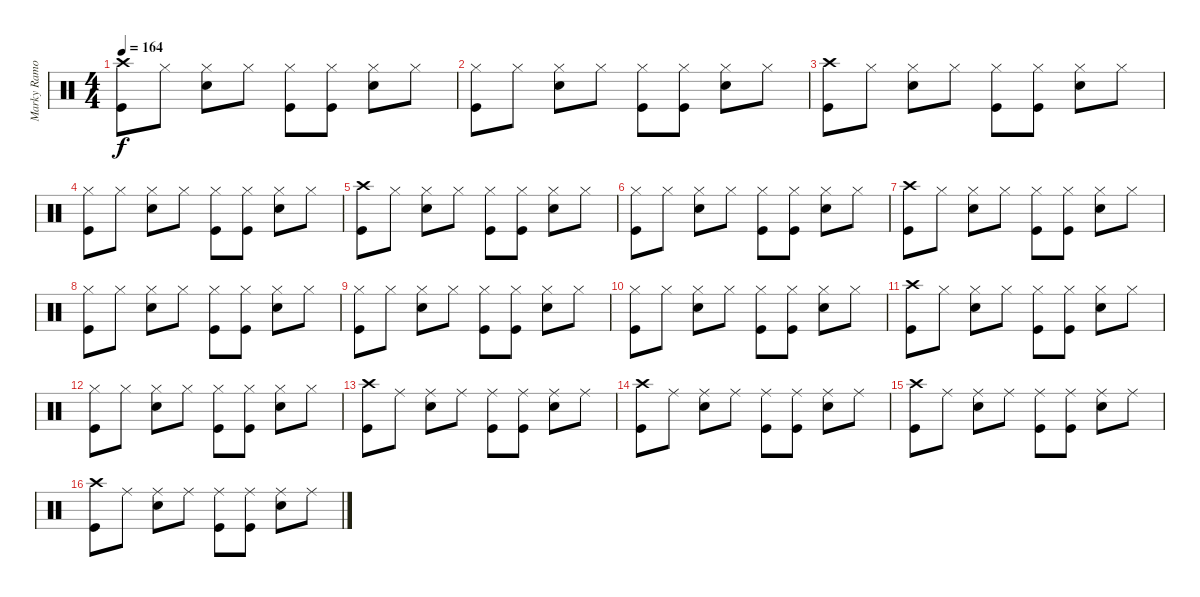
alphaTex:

\track ("Marky Ramone (Drums)" "Marky Ramo") {instrument percussion}
\staff {score}
\articulation defaults
\ts (4 4)
\tempo 164
\clef neutral
\ks c
("Crash high (hit)" "Kick (hit)").8{dy f} "Hi-Hat (closed)".8 ("Hi-Hat (closed)" "Snare (hit) 2").8 "Hi-Hat (closed)".8 ("Hi-Hat (closed)" "Kick (hit)").8 ("Hi-Hat (closed)" "Kick (hit)").8 ("Hi-Hat (closed)" "Snare (hit) 2").8 "Hi-Hat (closed)".8 |
("Hi-Hat (closed)" "Kick (hit)").8 "Hi-Hat (closed)".8 ("Hi-Hat (closed)" "Snare (hit) 2").8 "Hi-Hat (closed)".8 ("Hi-Hat (closed)" "Kick (hit)").8 ("Hi-Hat (closed)" "Kick (hit)").8 ("Hi-Hat (closed)" "Snare (hit) 2").8 "Hi-Hat (closed)".8 |
("Crash high (hit)" "Kick (hit)").8 "Hi-Hat (closed)".8 ("Hi-Hat (closed)" "Snare (hit) 2").8 "Hi-Hat (closed)".8 ("Hi-Hat (closed)" "Kick (hit)").8 ("Hi-Hat (closed)" "Kick (hit)").8 ("Hi-Hat (closed)" "Snare (hit) 2").8 "Hi-Hat (closed)".8 |
("Hi-Hat (closed)" "Kick (hit)").8 "Hi-Hat (closed)".8 ("Hi-Hat (closed)" "Snare (hit) 2").8 "Hi-Hat (closed)".8 ("Hi-Hat (closed)" "Kick (hit)").8 ("Hi-Hat (closed)" "Kick (hit)").8 ("Hi-Hat (closed)" "Snare (hit) 2").8 "Hi-Hat (closed)".8 |
("Crash high (hit)" "Kick (hit)").8 "Hi-Hat (closed)".8 ("Hi-Hat (closed)" "Snare (hit) 2").8 "Hi-Hat (closed)".8 ("Hi-Hat (closed)" "Kick (hit)").8 ("Hi-Hat (closed)" "Kick (hit)").8 ("Hi-Hat (closed)" "Snare (hit) 2").8 "Hi-Hat (closed)".8 |
("Hi-Hat (closed)" "Kick (hit)").8 "Hi-Hat (closed)".8 ("Hi-Hat (closed)" "Snare (hit) 2").8 "Hi-Hat (closed)".8 ("Hi-Hat (closed)" "Kick (hit)").8 ("Hi-Hat (closed)" "Kick (hit)").8 ("Hi-Hat (closed)" "Snare (hit) 2").8 "Hi-Hat (closed)".8 |
("Crash high (hit)" "Kick (hit)").8 "Hi-Hat (closed)".8 ("Hi-Hat (closed)" "Snare (hit) 2").8 "Hi-Hat (closed)".8 ("Hi-Hat (closed)" "Kick (hit)").8 ("Hi-Hat (closed)" "Kick (hit)").8 ("Hi-Hat (closed)" "Snare (hit) 2").8 "Hi-Hat (closed)".8 |
("Hi-Hat (closed)" "Kick (hit)").8 "Hi-Hat (closed)".8 ("Hi-Hat (closed)" "Snare (hit) 2").8 "Hi-Hat (closed)".8 ("Hi-Hat (closed)" "Kick (hit)").8 ("Hi-Hat (closed)" "Kick (hit)").8 ("Hi-Hat (closed)" "Snare (hit) 2").8 "Hi-Hat (closed)".8 |
("Hi-Hat (closed)" "Kick (hit)").8 "Hi-Hat (closed)".8 ("Hi-Hat (closed)" "Snare (hit) 2").8 "Hi-Hat (closed)".8 ("Hi-Hat (closed)" "Kick (hit)").8 ("Hi-Hat (closed)" "Kick (hit)").8 ("Hi-Hat (closed)" "Snare (hit) 2").8 "Hi-Hat (closed)".8 |
("Hi-Hat (closed)" "Kick (hit)").8 "Hi-Hat (closed)".8 ("Hi-Hat (closed)" "Snare (hit) 2").8 "Hi-Hat (closed)".8 ("Hi-Hat (closed)" "Kick (hit)").8 ("Hi-Hat (closed)" "Kick (hit)").8 ("Hi-Hat (closed)" "Snare (hit) 2").8 "Hi-Hat (closed)".8 |
("Crash high (hit)" "Kick (hit)").8 "Hi-Hat (closed)".8 ("Hi-Hat (closed)" "Snare (hit) 2").8 "Hi-Hat (closed)".8 ("Hi-Hat (closed)" "Kick (hit)").8 ("Hi-Hat (closed)" "Kick (hit)").8 ("Hi-Hat (closed)" "Snare (hit) 2").8 "Hi-Hat (closed)".8 |
("Hi-Hat (closed)" "Kick (hit)").8 "Hi-Hat (closed)".8 ("Hi-Hat (closed)" "Snare (hit) 2").8 "Hi-Hat (closed)".8 ("Hi-Hat (closed)" "Kick (hit)").8 ("Hi-Hat (closed)" "Kick (hit)").8 ("Hi-Hat (closed)" "Snare (hit) 2").8 "Hi-Hat (closed)".8 |
("Crash high (hit)" "Kick (hit)").8 "Ride (middle)".8 ("Ride (middle)" "Snare (hit) 2").8 "Ride (middle)".8 ("Ride (middle)" "Kick (hit)").8 ("Ride (middle)" "Kick (hit)").8 ("Ride (middle)" "Snare (hit) 2").8 "Ride (middle)".8 |
("Crash high (hit)" "Kick (hit)").8 "Ride (middle)".8 ("Ride (middle)" "Snare (hit) 2").8 "Ride (middle)".8 ("Ride (middle)" "Kick (hit)").8 ("Ride (middle)" "Kick (hit)").8 ("Ride (middle)" "Snare (hit) 2").8 "Ride (middle)".8 |
("Crash high (hit)" "Kick (hit)").8 "Ride (middle)".8 ("Ride (middle)" "Snare (hit) 2").8 "Ride (middle)".8 ("Ride (middle)" "Kick (hit)").8 ("Ride (middle)" "Kick (hit)").8 ("Ride (middle)" "Snare (hit) 2").8 "Ride (middle)".8 |
("Crash high (hit)" "Kick (hit)").8 "Ride (middle)".8 ("Ride (middle)" "Snare (hit) 2").8 "Ride (middle)".8 ("Ride (middle)" "Kick (hit)").8 ("Ride (middle)" "Kick (hit)").8 ("Ride (middle)" "Snare (hit) 2").8 "Ride (middle)".8
